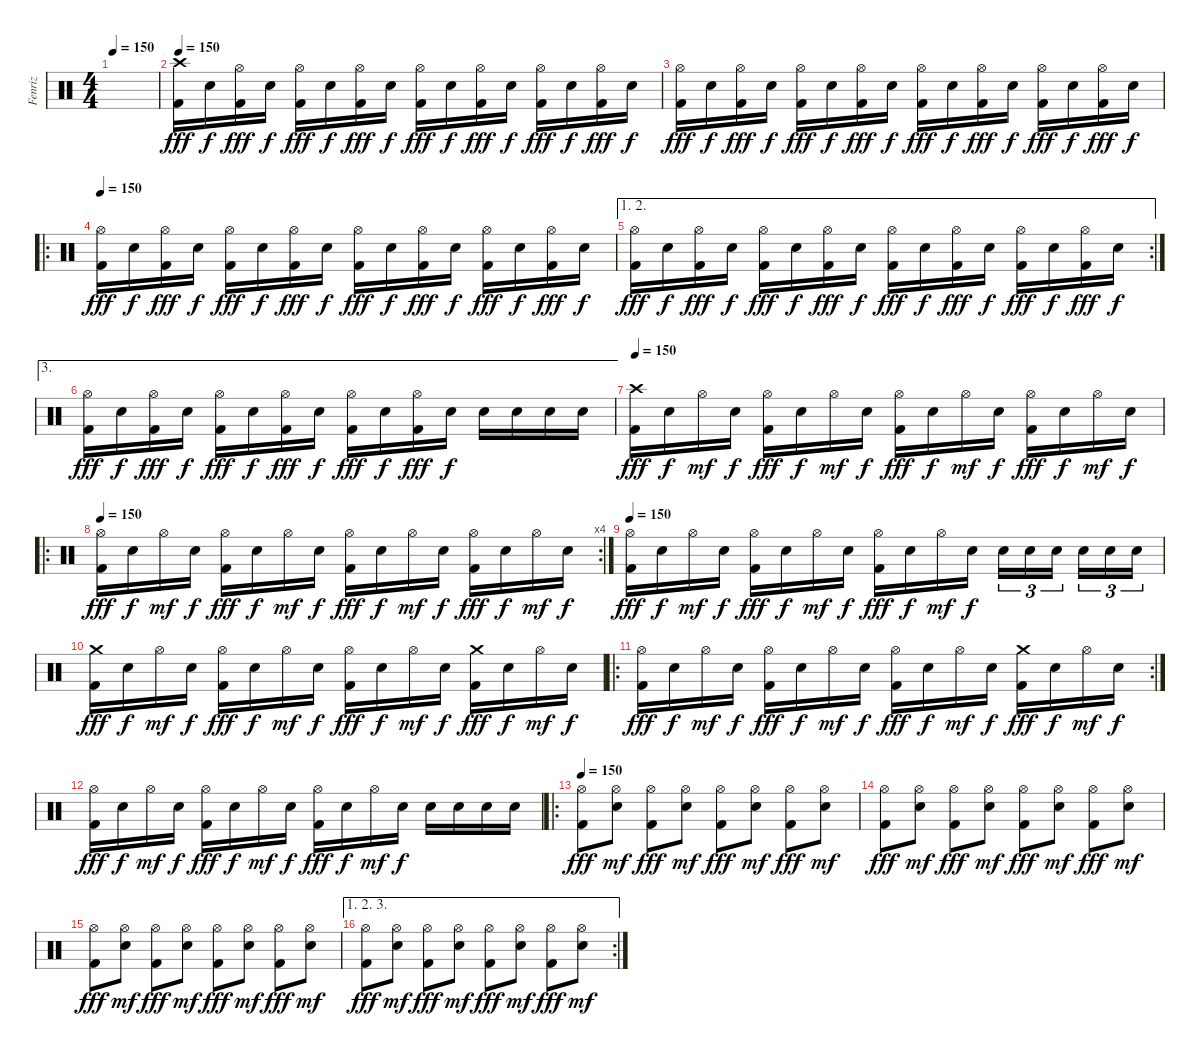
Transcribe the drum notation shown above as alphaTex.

\track ("Fenriz" "Fenriz") {instrument percussion}
\staff {score}
\articulation defaults
\ts (4 4)
\tempo 150
\clef neutral
\ks c
|
\tempo 150
("Crash high (hit)" "Kick (hit) 2").16{dy fff} "Electric Snare (hit)".16{dy f} ("Hi-Hat (open)" "Kick (hit) 2").16{dy fff} "Electric Snare (hit)".16{dy f} ("Hi-Hat (open)" "Kick (hit) 2").16{dy fff} "Electric Snare (hit)".16{dy f} ("Hi-Hat (open)" "Kick (hit) 2").16{dy fff} "Electric Snare (hit)".16{dy f} ("Hi-Hat (open)" "Kick (hit) 2").16{dy fff} "Electric Snare (hit)".16{dy f} ("Hi-Hat (open)" "Kick (hit) 2").16{dy fff} "Electric Snare (hit)".16{dy f} ("Hi-Hat (open)" "Kick (hit) 2").16{dy fff} "Electric Snare (hit)".16{dy f} ("Hi-Hat (open)" "Kick (hit) 2").16{dy fff} "Electric Snare (hit)".16{dy f} |
("Hi-Hat (open)" "Kick (hit) 2").16{dy fff} "Electric Snare (hit)".16{dy f} ("Hi-Hat (open)" "Kick (hit) 2").16{dy fff} "Electric Snare (hit)".16{dy f} ("Hi-Hat (open)" "Kick (hit) 2").16{dy fff} "Electric Snare (hit)".16{dy f} ("Hi-Hat (open)" "Kick (hit) 2").16{dy fff} "Electric Snare (hit)".16{dy f} ("Hi-Hat (open)" "Kick (hit) 2").16{dy fff} "Electric Snare (hit)".16{dy f} ("Hi-Hat (open)" "Kick (hit) 2").16{dy fff} "Electric Snare (hit)".16{dy f} ("Hi-Hat (open)" "Kick (hit) 2").16{dy fff} "Electric Snare (hit)".16{dy f} ("Hi-Hat (open)" "Kick (hit) 2").16{dy fff} "Electric Snare (hit)".16{dy f} |
\ro
\tempo 150
("Hi-Hat (open)" "Kick (hit) 2").16{dy fff} "Electric Snare (hit)".16{dy f} ("Hi-Hat (open)" "Kick (hit) 2").16{dy fff} "Electric Snare (hit)".16{dy f} ("Hi-Hat (open)" "Kick (hit) 2").16{dy fff} "Electric Snare (hit)".16{dy f} ("Hi-Hat (open)" "Kick (hit) 2").16{dy fff} "Electric Snare (hit)".16{dy f} ("Hi-Hat (open)" "Kick (hit) 2").16{dy fff} "Electric Snare (hit)".16{dy f} ("Hi-Hat (open)" "Kick (hit) 2").16{dy fff} "Electric Snare (hit)".16{dy f} ("Hi-Hat (open)" "Kick (hit) 2").16{dy fff} "Electric Snare (hit)".16{dy f} ("Hi-Hat (open)" "Kick (hit) 2").16{dy fff} "Electric Snare (hit)".16{dy f} |
\ae (1 2)
\rc 2
("Hi-Hat (open)" "Kick (hit) 2").16{dy fff} "Electric Snare (hit)".16{dy f} ("Hi-Hat (open)" "Kick (hit) 2").16{dy fff} "Electric Snare (hit)".16{dy f} ("Hi-Hat (open)" "Kick (hit) 2").16{dy fff} "Electric Snare (hit)".16{dy f} ("Hi-Hat (open)" "Kick (hit) 2").16{dy fff} "Electric Snare (hit)".16{dy f} ("Hi-Hat (open)" "Kick (hit) 2").16{dy fff} "Electric Snare (hit)".16{dy f} ("Hi-Hat (open)" "Kick (hit) 2").16{dy fff} "Electric Snare (hit)".16{dy f} ("Hi-Hat (open)" "Kick (hit) 2").16{dy fff} "Electric Snare (hit)".16{dy f} ("Hi-Hat (open)" "Kick (hit) 2").16{dy fff} "Electric Snare (hit)".16{dy f} |
\ae 3
("Hi-Hat (open)" "Kick (hit) 2").16{dy fff} "Electric Snare (hit)".16{dy f} ("Hi-Hat (open)" "Kick (hit) 2").16{dy fff} "Electric Snare (hit)".16{dy f} ("Hi-Hat (open)" "Kick (hit) 2").16{dy fff} "Electric Snare (hit)".16{dy f} ("Hi-Hat (open)" "Kick (hit) 2").16{dy fff} "Electric Snare (hit)".16{dy f} ("Hi-Hat (open)" "Kick (hit) 2").16{dy fff} "Electric Snare (hit)".16{dy f} ("Hi-Hat (open)" "Kick (hit) 2").16{dy fff} "Electric Snare (hit)".16{dy f} "Electric Snare (hit)".16 "Electric Snare (hit)".16 "Electric Snare (hit)".16 "Electric Snare (hit)".16 |
\tempo 150
("Crash high (hit)" "Kick (hit) 2").16{dy fff} "Electric Snare (hit)".16{dy f} "Hi-Hat (open)".16{dy mf} "Electric Snare (hit)".16{dy f} ("Hi-Hat (open)" "Kick (hit) 2").16{dy fff} "Electric Snare (hit)".16{dy f} "Hi-Hat (open)".16{dy mf} "Electric Snare (hit)".16{dy f} ("Hi-Hat (open)" "Kick (hit) 2").16{dy fff} "Electric Snare (hit)".16{dy f} "Hi-Hat (open)".16{dy mf} "Electric Snare (hit)".16{dy f} ("Hi-Hat (open)" "Kick (hit) 2").16{dy fff} "Electric Snare (hit)".16{dy f} "Hi-Hat (open)".16{dy mf} "Electric Snare (hit)".16{dy f} |
\ro
\rc 4
\tempo 150
("Hi-Hat (open)" "Kick (hit) 2").16{dy fff} "Electric Snare (hit)".16{dy f} "Hi-Hat (open)".16{dy mf} "Electric Snare (hit)".16{dy f} ("Hi-Hat (open)" "Kick (hit) 2").16{dy fff} "Electric Snare (hit)".16{dy f} "Hi-Hat (open)".16{dy mf} "Electric Snare (hit)".16{dy f} ("Hi-Hat (open)" "Kick (hit) 2").16{dy fff} "Electric Snare (hit)".16{dy f} "Hi-Hat (open)".16{dy mf} "Electric Snare (hit)".16{dy f} ("Hi-Hat (open)" "Kick (hit) 2").16{dy fff} "Electric Snare (hit)".16{dy f} "Hi-Hat (open)".16{dy mf} "Electric Snare (hit)".16{dy f} |
\tempo 150
("Hi-Hat (open)" "Kick (hit) 2").16{dy fff} "Electric Snare (hit)".16{dy f} "Hi-Hat (open)".16{dy mf} "Electric Snare (hit)".16{dy f} ("Hi-Hat (open)" "Kick (hit) 2").16{dy fff} "Electric Snare (hit)".16{dy f} "Hi-Hat (open)".16{dy mf} "Electric Snare (hit)".16{dy f} ("Hi-Hat (open)" "Kick (hit) 2").16{dy fff} "Electric Snare (hit)".16{dy f} "Hi-Hat (open)".16{dy mf} "Electric Snare (hit)".16{dy f} "Electric Snare (hit)".16{tu (3 2)} "Electric Snare (hit)".16{tu (3 2)} "Electric Snare (hit)".16{tu (3 2)} "Electric Snare (hit)".16{tu (3 2)} "Electric Snare (hit)".16{tu (3 2)} "Electric Snare (hit)".16{tu (3 2)} |
("Crash medium (hit)" "Kick (hit) 2").16{dy fff} "Electric Snare (hit)".16{dy f} "Hi-Hat (open)".16{dy mf} "Electric Snare (hit)".16{dy f} ("Hi-Hat (open)" "Kick (hit) 2").16{dy fff} "Electric Snare (hit)".16{dy f} "Hi-Hat (open)".16{dy mf} "Electric Snare (hit)".16{dy f} ("Hi-Hat (open)" "Kick (hit) 2").16{dy fff} "Electric Snare (hit)".16{dy f} "Hi-Hat (open)".16{dy mf} "Electric Snare (hit)".16{dy f} ("Crash medium (hit)" "Kick (hit) 2").16{dy fff} "Electric Snare (hit)".16{dy f} "Hi-Hat (open)".16{dy mf} "Electric Snare (hit)".16{dy f} |
\ro
\rc 2
("Hi-Hat (open)" "Kick (hit) 2").16{dy fff} "Electric Snare (hit)".16{dy f} "Hi-Hat (open)".16{dy mf} "Electric Snare (hit)".16{dy f} ("Hi-Hat (open)" "Kick (hit) 2").16{dy fff} "Electric Snare (hit)".16{dy f} "Hi-Hat (open)".16{dy mf} "Electric Snare (hit)".16{dy f} ("Hi-Hat (open)" "Kick (hit) 2").16{dy fff} "Electric Snare (hit)".16{dy f} "Hi-Hat (open)".16{dy mf} "Electric Snare (hit)".16{dy f} ("Crash medium (hit)" "Kick (hit) 2").16{dy fff} "Electric Snare (hit)".16{dy f} "Hi-Hat (open)".16{dy mf} "Electric Snare (hit)".16{dy f} |
("Hi-Hat (open)" "Kick (hit) 2").16{dy fff} "Electric Snare (hit)".16{dy f} "Hi-Hat (open)".16{dy mf} "Electric Snare (hit)".16{dy f} ("Hi-Hat (open)" "Kick (hit) 2").16{dy fff} "Electric Snare (hit)".16{dy f} "Hi-Hat (open)".16{dy mf} "Electric Snare (hit)".16{dy f} ("Hi-Hat (open)" "Kick (hit) 2").16{dy fff} "Electric Snare (hit)".16{dy f} "Hi-Hat (open)".16{dy mf} "Electric Snare (hit)".16{dy f} "Electric Snare (hit)".16 "Electric Snare (hit)".16 "Electric Snare (hit)".16 "Electric Snare (hit)".16 |
\ro
\tempo 150
("Hi-Hat (open)" "Kick (hit) 2").8{dy fff} ("Hi-Hat (open)" "Electric Snare (hit)").8{dy mf} ("Hi-Hat (open)" "Kick (hit) 2").8{dy fff} ("Hi-Hat (open)" "Electric Snare (hit)").8{dy mf} ("Hi-Hat (open)" "Kick (hit) 2").8{dy fff} ("Hi-Hat (open)" "Electric Snare (hit)").8{dy mf} ("Hi-Hat (open)" "Kick (hit) 2").8{dy fff} ("Hi-Hat (open)" "Electric Snare (hit)").8{dy mf} |
("Hi-Hat (open)" "Kick (hit) 2").8{dy fff} ("Hi-Hat (open)" "Electric Snare (hit)").8{dy mf} ("Hi-Hat (open)" "Kick (hit) 2").8{dy fff} ("Hi-Hat (open)" "Electric Snare (hit)").8{dy mf} ("Hi-Hat (open)" "Kick (hit) 2").8{dy fff} ("Hi-Hat (open)" "Electric Snare (hit)").8{dy mf} ("Hi-Hat (open)" "Kick (hit) 2").8{dy fff} ("Hi-Hat (open)" "Electric Snare (hit)").8{dy mf} |
("Hi-Hat (open)" "Kick (hit) 2").8{dy fff} ("Hi-Hat (open)" "Electric Snare (hit)").8{dy mf} ("Hi-Hat (open)" "Kick (hit) 2").8{dy fff} ("Hi-Hat (open)" "Electric Snare (hit)").8{dy mf} ("Hi-Hat (open)" "Kick (hit) 2").8{dy fff} ("Hi-Hat (open)" "Electric Snare (hit)").8{dy mf} ("Hi-Hat (open)" "Kick (hit) 2").8{dy fff} ("Hi-Hat (open)" "Electric Snare (hit)").8{dy mf} |
\ae (1 2 3)
\rc 2
("Hi-Hat (open)" "Kick (hit) 2").8{dy fff} ("Hi-Hat (open)" "Electric Snare (hit)").8{dy mf} ("Hi-Hat (open)" "Kick (hit) 2").8{dy fff} ("Hi-Hat (open)" "Electric Snare (hit)").8{dy mf} ("Hi-Hat (open)" "Kick (hit) 2").8{dy fff} ("Hi-Hat (open)" "Electric Snare (hit)").8{dy mf} ("Hi-Hat (open)" "Kick (hit) 2").8{dy fff} ("Hi-Hat (open)" "Electric Snare (hit)").8{dy mf}
